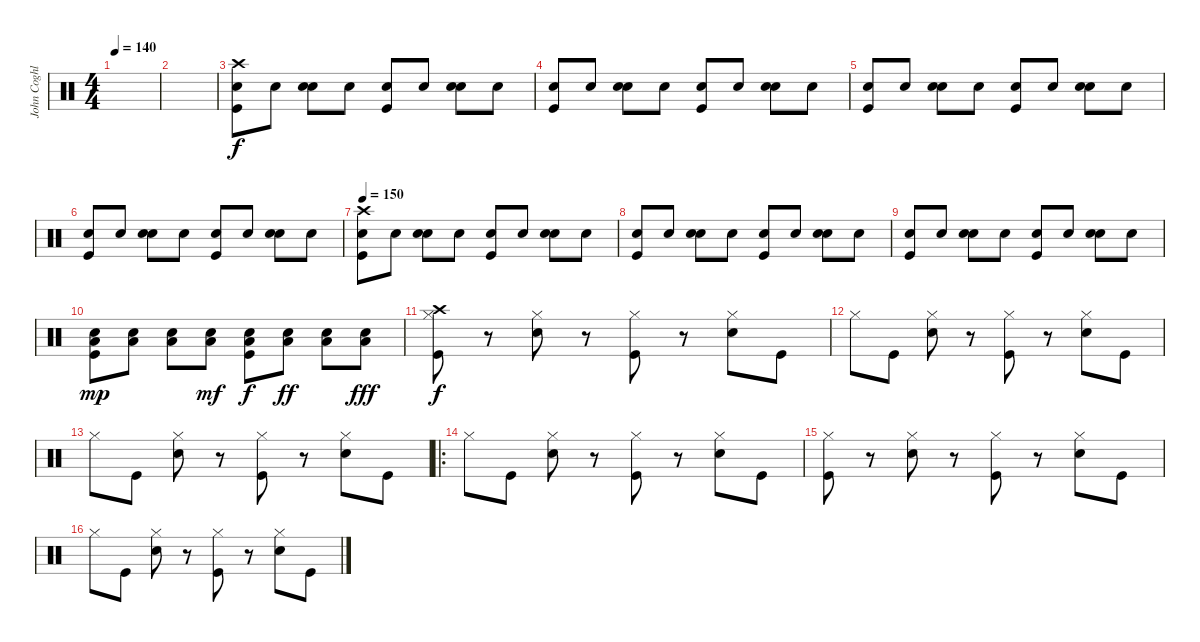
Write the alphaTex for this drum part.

\track ("John Coghlan" "John Coghl") {instrument percussion}
\staff {score}
\articulation defaults
\ts (4 4)
\tempo 140
\clef neutral
\ks c
|
|
("Crash high (hit)" "Electric Snare (hit)" "Kick (hit)").8 "Electric Snare (hit)".8 ("Hand Clap (hit)" "Electric Snare (hit)").8 "Electric Snare (hit)".8 ("Electric Snare (hit)" "Kick (hit)").8 "Electric Snare (hit)".8 ("Hand Clap (hit)" "Electric Snare (hit)").8 "Electric Snare (hit)".8 |
("Electric Snare (hit)" "Kick (hit)").8 "Electric Snare (hit)".8 ("Hand Clap (hit)" "Electric Snare (hit)").8 "Electric Snare (hit)".8 ("Electric Snare (hit)" "Kick (hit)").8 "Electric Snare (hit)".8 ("Hand Clap (hit)" "Electric Snare (hit)").8 "Electric Snare (hit)".8 |
("Electric Snare (hit)" "Kick (hit)").8 "Electric Snare (hit)".8 ("Hand Clap (hit)" "Electric Snare (hit)").8 "Electric Snare (hit)".8 ("Electric Snare (hit)" "Kick (hit)").8 "Electric Snare (hit)".8 ("Hand Clap (hit)" "Electric Snare (hit)").8 "Electric Snare (hit)".8 |
("Electric Snare (hit)" "Kick (hit)").8 "Electric Snare (hit)".8 ("Hand Clap (hit)" "Electric Snare (hit)").8 "Electric Snare (hit)".8 ("Electric Snare (hit)" "Kick (hit)").8 "Electric Snare (hit)".8 ("Hand Clap (hit)" "Electric Snare (hit)").8 "Electric Snare (hit)".8 |
\tempo 150
("Crash high (hit)" "Electric Snare (hit)" "Kick (hit)").8 "Electric Snare (hit)".8 ("Hand Clap (hit)" "Electric Snare (hit)").8 "Electric Snare (hit)".8 ("Electric Snare (hit)" "Kick (hit)").8 "Electric Snare (hit)".8 ("Hand Clap (hit)" "Electric Snare (hit)").8 "Electric Snare (hit)".8 |
("Electric Snare (hit)" "Kick (hit)").8 "Electric Snare (hit)".8 ("Hand Clap (hit)" "Electric Snare (hit)").8 "Electric Snare (hit)".8 ("Electric Snare (hit)" "Kick (hit)").8 "Electric Snare (hit)".8 ("Hand Clap (hit)" "Electric Snare (hit)").8 "Electric Snare (hit)".8 |
("Electric Snare (hit)" "Kick (hit)").8 "Electric Snare (hit)".8 ("Hand Clap (hit)" "Electric Snare (hit)").8 "Electric Snare (hit)".8 ("Electric Snare (hit)" "Kick (hit)").8 "Electric Snare (hit)".8 ("Hand Clap (hit)" "Electric Snare (hit)").8 "Electric Snare (hit)".8 |
("Low Tom (hit)" "Electric Snare (hit)" "Kick (hit)").8{dy mp} ("Low Tom (hit)" "Electric Snare (hit)").8 ("Low Tom (hit)" "Electric Snare (hit)").8 ("Low Tom (hit)" "Electric Snare (hit)").8{dy mf} ("Low Tom (hit)" "Electric Snare (hit)" "Kick (hit)").8{dy f} ("Low Tom (hit)" "Electric Snare (hit)").8{dy ff} ("Low Tom (hit)" "Electric Snare (hit)").8 ("Low Tom (hit)" "Electric Snare (hit)").8{dy fff} |
("Crash high (hit)" "Hi-Hat (closed)" "Kick (hit)").8{dy f} r.8 ("Electric Snare (hit)" "Hi-Hat (closed)").8 r.8 ("Hi-Hat (closed)" "Kick (hit)").8 r.8 ("Electric Snare (hit)" "Hi-Hat (closed)").8 "Kick (hit)".8 |
"Hi-Hat (closed)".8 "Kick (hit)".8 ("Electric Snare (hit)" "Hi-Hat (closed)").8 r.8 ("Hi-Hat (closed)" "Kick (hit)").8 r.8 ("Electric Snare (hit)" "Hi-Hat (closed)").8 "Kick (hit)".8 |
"Hi-Hat (closed)".8 "Kick (hit)".8 ("Electric Snare (hit)" "Hi-Hat (closed)").8 r.8 ("Hi-Hat (closed)" "Kick (hit)").8 r.8 ("Electric Snare (hit)" "Hi-Hat (closed)").8 "Kick (hit)".8 |
\ro "Hi-Hat (closed)".8 "Kick (hit)".8
("Electric Snare (hit)" "Hi-Hat (closed)").8 r.8 ("Hi-Hat (closed)" "Kick (hit)").8 r.8 ("Electric Snare (hit)" "Hi-Hat (closed)").8 "Kick (hit)".8 |
("Hi-Hat (closed)" "Kick (hit)").8 r.8 ("Electric Snare (hit)" "Hi-Hat (closed)").8 r.8 ("Hi-Hat (closed)" "Kick (hit)").8 r.8 ("Electric Snare (hit)" "Hi-Hat (closed)").8 "Kick (hit)".8 |
"Hi-Hat (closed)".8 "Kick (hit)".8 ("Electric Snare (hit)" "Hi-Hat (closed)").8 r.8 ("Hi-Hat (closed)" "Kick (hit)").8 r.8 ("Electric Snare (hit)" "Hi-Hat (closed)").8 "Kick (hit)".8
